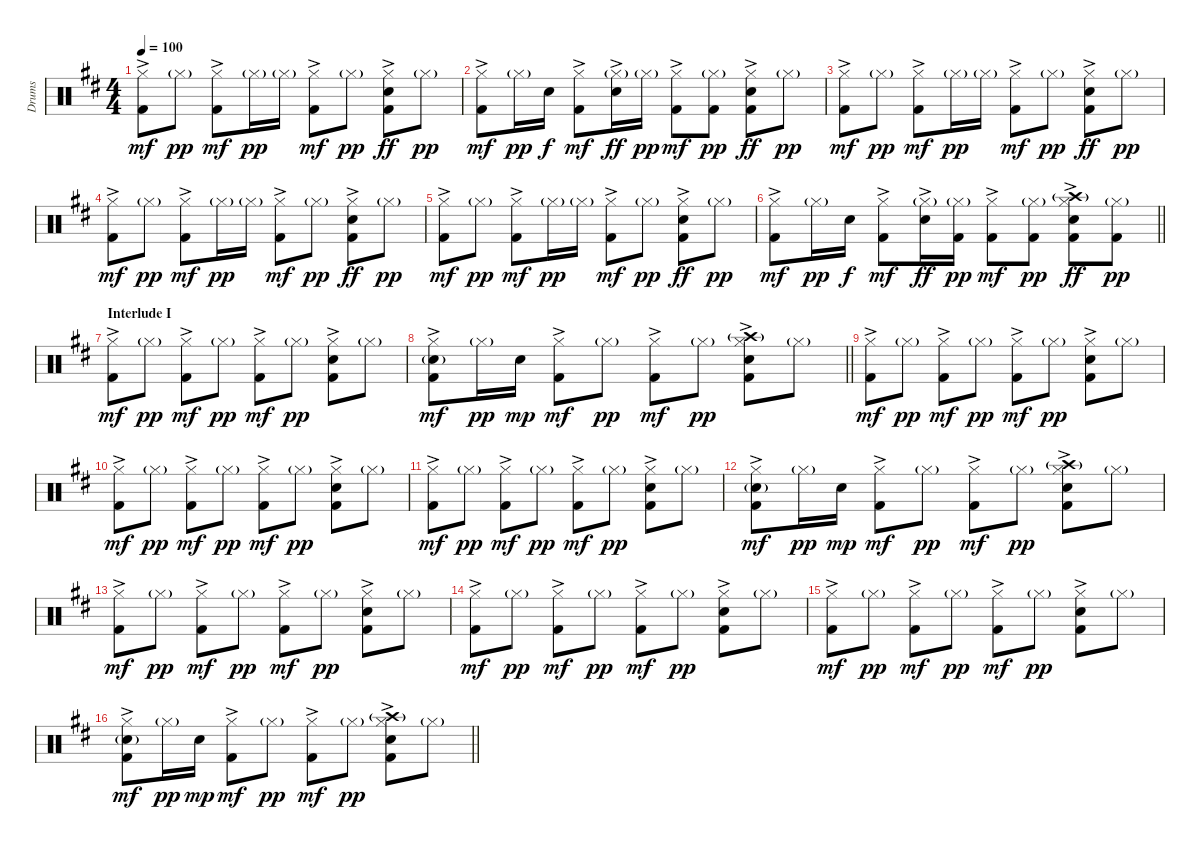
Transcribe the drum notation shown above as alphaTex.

\track ("Drums" "Drums") {instrument percussion}
\staff {score}
\articulation defaults
\ts (4 4)
\tempo 100
\clef neutral
\ks d
("Hi-Hat (closed)" "Kick (hit) 2"{ac}).8{dy mf} "Hi-Hat (closed)"{g}.8{dy pp} ("Hi-Hat (closed)"{ac} "Kick (hit) 2"{ac}).8{dy mf} "Hi-Hat (closed)"{g}.16{dy pp} "Hi-Hat (closed)"{g}.16 ("Hi-Hat (closed)" "Kick (hit) 2"{ac}).8{dy mf} "Hi-Hat (closed)"{g}.8{dy pp} ("Hi-Hat (closed)"{ac} "Snare (hit) 2"{ac} "Kick (hit) 2"{ac}).8{dy ff} "Hi-Hat (closed)"{g}.8{dy pp} |
("Hi-Hat (closed)" "Kick (hit) 2"{ac}).8{dy mf} "Hi-Hat (closed)"{g}.16{dy pp} "Snare (hit) 2".16{dy f} ("Hi-Hat (closed)"{ac} "Kick (hit) 2"{ac}).8{dy mf} ("Hi-Hat (closed)"{g} "Snare (hit) 2"{ac}).16{dy ff} "Hi-Hat (closed)"{g}.16{dy pp} ("Hi-Hat (closed)" "Kick (hit) 2"{ac}).8{dy mf} ("Hi-Hat (closed)"{g} "Kick (hit) 2").8{dy pp} ("Hi-Hat (closed)"{ac} "Snare (hit) 2"{ac} "Kick (hit) 2"{ac}).8{dy ff} "Hi-Hat (closed)"{g}.8{dy pp} |
("Hi-Hat (closed)" "Kick (hit) 2"{ac}).8{dy mf} "Hi-Hat (closed)"{g}.8{dy pp} ("Hi-Hat (closed)"{ac} "Kick (hit) 2"{ac}).8{dy mf} "Hi-Hat (closed)"{g}.16{dy pp} "Hi-Hat (closed)"{g}.16 ("Hi-Hat (closed)" "Kick (hit) 2"{ac}).8{dy mf} "Hi-Hat (closed)"{g}.8{dy pp} ("Hi-Hat (closed)"{ac} "Snare (hit) 2"{ac} "Kick (hit) 2"{ac}).8{dy ff} "Hi-Hat (closed)"{g}.8{dy pp} |
("Hi-Hat (closed)" "Kick (hit) 2"{ac}).8{dy mf} "Hi-Hat (closed)"{g}.8{dy pp} ("Hi-Hat (closed)"{ac} "Kick (hit) 2"{ac}).8{dy mf} "Hi-Hat (closed)"{g}.16{dy pp} "Hi-Hat (closed)"{g}.16 ("Hi-Hat (closed)" "Kick (hit) 2"{ac}).8{dy mf} "Hi-Hat (closed)"{g}.8{dy pp} ("Hi-Hat (closed)"{ac} "Snare (hit) 2"{ac} "Kick (hit) 2"{ac}).8{dy ff} "Hi-Hat (closed)"{g}.8{dy pp} |
("Hi-Hat (closed)" "Kick (hit) 2"{ac}).8{dy mf} "Hi-Hat (closed)"{g}.8{dy pp} ("Hi-Hat (closed)"{ac} "Kick (hit) 2"{ac}).8{dy mf} "Hi-Hat (closed)"{g}.16{dy pp} "Hi-Hat (closed)"{g}.16 ("Hi-Hat (closed)" "Kick (hit) 2"{ac}).8{dy mf} "Hi-Hat (closed)"{g}.8{dy pp} ("Hi-Hat (closed)"{ac} "Snare (hit) 2"{ac} "Kick (hit) 2"{ac}).8{dy ff} "Hi-Hat (closed)"{g}.8{dy pp} |
\barLineRight lightlight
("Hi-Hat (closed)" "Kick (hit) 2"{ac}).8{dy mf} "Hi-Hat (closed)"{g}.16{dy pp} "Snare (hit) 2".16{dy f} ("Hi-Hat (closed)"{ac} "Kick (hit) 2"{ac}).8{dy mf} ("Hi-Hat (closed)"{g} "Snare (hit) 2"{ac}).16{dy ff} ("Hi-Hat (closed)"{g} "Kick (hit) 2").16{dy pp} ("Hi-Hat (closed)" "Kick (hit) 2"{ac}).8{dy mf} ("Hi-Hat (closed)"{g} "Kick (hit) 2").8{dy pp} ("Hi-Hat (closed)"{ac} "Crash high (hit)"{g} "Snare (hit) 2"{ac} "Kick (hit) 2"{ac}).8{dy ff} ("Hi-Hat (closed)"{g} "Kick (hit) 2").8{dy pp} |
\section ("" "Interlude I")
("Hi-Hat (closed)" "Kick (hit) 2"{ac}).8{dy mf} "Hi-Hat (closed)"{g}.8{dy pp} ("Hi-Hat (closed)"{ac} "Kick (hit) 2"{ac}).8{dy mf} "Hi-Hat (closed)"{g}.8{dy pp} ("Hi-Hat (closed)" "Kick (hit) 2"{ac}).8{dy mf} "Hi-Hat (closed)"{g}.8{dy pp} ("Hi-Hat (closed)"{ac} "Snare (hit) 2"{ac} "Kick (hit) 2").8 "Hi-Hat (closed)"{g}.8 |
\barLineRight lightlight
("Hi-Hat (closed)" "Snare (hit) 2"{g} "Kick (hit) 2"{ac}).8{dy mf} "Hi-Hat (closed)"{g}.16{dy pp} "Snare (hit) 2".16{dy mp} ("Hi-Hat (closed)"{ac} "Kick (hit) 2"{ac}).8{dy mf} "Hi-Hat (closed)"{g}.8{dy pp} ("Hi-Hat (closed)" "Kick (hit) 2"{ac}).8{dy mf} "Hi-Hat (closed)"{g}.8{dy pp} ("Hi-Hat (closed)"{ac} "Crash high (hit)"{g} "Snare (hit) 2"{ac} "Kick (hit) 2").8 "Hi-Hat (closed)"{g}.8 |
("Hi-Hat (closed)" "Kick (hit) 2"{ac}).8{dy mf} "Hi-Hat (closed)"{g}.8{dy pp} ("Hi-Hat (closed)"{ac} "Kick (hit) 2"{ac}).8{dy mf} "Hi-Hat (closed)"{g}.8{dy pp} ("Hi-Hat (closed)" "Kick (hit) 2"{ac}).8{dy mf} "Hi-Hat (closed)"{g}.8{dy pp} ("Hi-Hat (closed)"{ac} "Snare (hit) 2"{ac} "Kick (hit) 2").8 "Hi-Hat (closed)"{g}.8 |
("Hi-Hat (closed)" "Kick (hit) 2"{ac}).8{dy mf} "Hi-Hat (closed)"{g}.8{dy pp} ("Hi-Hat (closed)"{ac} "Kick (hit) 2"{ac}).8{dy mf} "Hi-Hat (closed)"{g}.8{dy pp} ("Hi-Hat (closed)" "Kick (hit) 2"{ac}).8{dy mf} "Hi-Hat (closed)"{g}.8{dy pp} ("Hi-Hat (closed)"{ac} "Snare (hit) 2"{ac} "Kick (hit) 2").8 "Hi-Hat (closed)"{g}.8 |
("Hi-Hat (closed)" "Kick (hit) 2"{ac}).8{dy mf} "Hi-Hat (closed)"{g}.8{dy pp} ("Hi-Hat (closed)"{ac} "Kick (hit) 2"{ac}).8{dy mf} "Hi-Hat (closed)"{g}.8{dy pp} ("Hi-Hat (closed)" "Kick (hit) 2"{ac}).8{dy mf} "Hi-Hat (closed)"{g}.8{dy pp} ("Hi-Hat (closed)"{ac} "Snare (hit) 2"{ac} "Kick (hit) 2").8 "Hi-Hat (closed)"{g}.8 |
("Hi-Hat (closed)" "Snare (hit) 2"{g} "Kick (hit) 2"{ac}).8{dy mf} "Hi-Hat (closed)"{g}.16{dy pp} "Snare (hit) 2".16{dy mp} ("Hi-Hat (closed)"{ac} "Kick (hit) 2"{ac}).8{dy mf} "Hi-Hat (closed)"{g}.8{dy pp} ("Hi-Hat (closed)" "Kick (hit) 2"{ac}).8{dy mf} "Hi-Hat (closed)"{g}.8{dy pp} ("Hi-Hat (closed)"{ac} "Crash high (hit)"{g} "Snare (hit) 2"{ac} "Kick (hit) 2").8 "Hi-Hat (closed)"{g}.8 |
("Hi-Hat (closed)" "Kick (hit) 2"{ac}).8{dy mf} "Hi-Hat (closed)"{g}.8{dy pp} ("Hi-Hat (closed)"{ac} "Kick (hit) 2"{ac}).8{dy mf} "Hi-Hat (closed)"{g}.8{dy pp} ("Hi-Hat (closed)" "Kick (hit) 2"{ac}).8{dy mf} "Hi-Hat (closed)"{g}.8{dy pp} ("Hi-Hat (closed)"{ac} "Snare (hit) 2"{ac} "Kick (hit) 2").8 "Hi-Hat (closed)"{g}.8 |
("Hi-Hat (closed)" "Kick (hit) 2"{ac}).8{dy mf} "Hi-Hat (closed)"{g}.8{dy pp} ("Hi-Hat (closed)"{ac} "Kick (hit) 2"{ac}).8{dy mf} "Hi-Hat (closed)"{g}.8{dy pp} ("Hi-Hat (closed)" "Kick (hit) 2"{ac}).8{dy mf} "Hi-Hat (closed)"{g}.8{dy pp} ("Hi-Hat (closed)"{ac} "Snare (hit) 2"{ac} "Kick (hit) 2").8 "Hi-Hat (closed)"{g}.8 |
("Hi-Hat (closed)" "Kick (hit) 2"{ac}).8{dy mf} "Hi-Hat (closed)"{g}.8{dy pp} ("Hi-Hat (closed)"{ac} "Kick (hit) 2"{ac}).8{dy mf} "Hi-Hat (closed)"{g}.8{dy pp} ("Hi-Hat (closed)" "Kick (hit) 2"{ac}).8{dy mf} "Hi-Hat (closed)"{g}.8{dy pp} ("Hi-Hat (closed)"{ac} "Snare (hit) 2"{ac} "Kick (hit) 2").8 "Hi-Hat (closed)"{g}.8 |
\barLineRight lightlight
("Hi-Hat (closed)" "Snare (hit) 2"{g} "Kick (hit) 2"{ac}).8{dy mf} "Hi-Hat (closed)"{g}.16{dy pp} "Snare (hit) 2".16{dy mp} ("Hi-Hat (closed)"{ac} "Kick (hit) 2"{ac}).8{dy mf} "Hi-Hat (closed)"{g}.8{dy pp} ("Hi-Hat (closed)" "Kick (hit) 2"{ac}).8{dy mf} "Hi-Hat (closed)"{g}.8{dy pp} ("Hi-Hat (closed)"{ac} "Crash high (hit)"{g} "Snare (hit) 2"{ac} "Kick (hit) 2").8 "Hi-Hat (closed)"{g}.8
